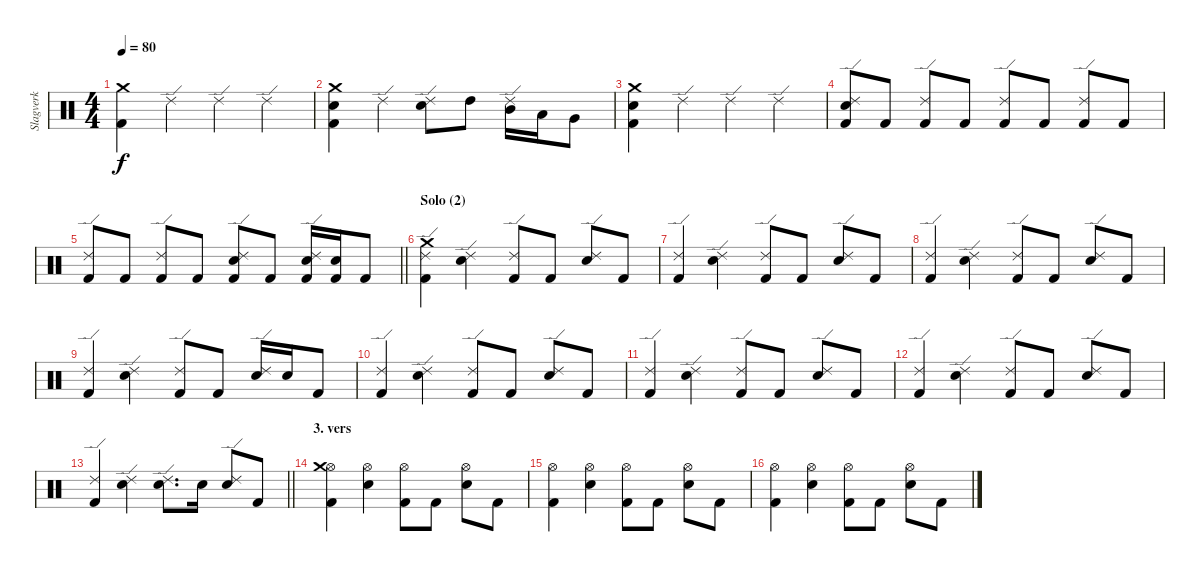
\track ("Slagverk" "Slagverk") {instrument percussion}
\staff {score}
\articulation defaults
\ts (4 4)
\tempo 80
\clef neutral
\ks c
("Crash medium (hit)" "Kick (hit) 2").4{dy f} "Ride (edge) 2".4 "Ride (edge) 2".4 "Ride (edge) 2".4 |
("Electric Snare (hit)" "Crash medium (hit)" "Kick (hit) 2").4 "Ride (edge) 2".4 ("Ride (edge) 2" "Electric Snare (hit)").8 "High Tom (hit)".8 ("Ride (edge) 2" "Mid Tom (hit)").16 "Low Tom (hit)".16 "Very Low Tom (hit)".8 |
("Electric Snare (hit)" "Crash medium (hit)" "Kick (hit) 2").4 "Ride (edge) 2".4 "Ride (edge) 2".4 "Ride (edge) 2".4 |
("Electric Snare (hit)" "Ride (edge) 2" "Kick (hit) 2").8 "Kick (hit) 2".8 ("Ride (edge) 2" "Kick (hit) 2").8 "Kick (hit) 2".8 ("Ride (edge) 2" "Kick (hit) 2").8 "Kick (hit) 2".8 ("Ride (edge) 2" "Kick (hit) 2").8 "Kick (hit) 2".8 |
\barLineRight lightlight
("Ride (edge) 2" "Kick (hit) 2").8 "Kick (hit) 2".8 ("Ride (edge) 2" "Kick (hit) 2").8 "Kick (hit) 2".8 ("Electric Snare (hit)" "Ride (edge) 2" "Kick (hit) 2").8 "Kick (hit) 2".8 ("Electric Snare (hit)" "Ride (edge) 2" "Kick (hit) 2").16 ("Electric Snare (hit)" "Kick (hit) 2").16 "Kick (hit) 2".8 |
\section ("" "Solo (2)")
("Ride (edge) 2" "Kick (hit) 2" "Crash medium (hit)").4 ("Electric Snare (hit)" "Ride (edge) 2").4 ("Ride (edge) 2" "Kick (hit) 2").8 "Kick (hit) 2".8 ("Electric Snare (hit)" "Ride (edge) 2").8 "Kick (hit) 2".8 |
("Ride (edge) 2" "Kick (hit) 2").4 ("Electric Snare (hit)" "Ride (edge) 2").4 ("Ride (edge) 2" "Kick (hit) 2").8 "Kick (hit) 2".8 ("Electric Snare (hit)" "Ride (edge) 2").8 "Kick (hit) 2".8 |
("Ride (edge) 2" "Kick (hit) 2").4 ("Electric Snare (hit)" "Ride (edge) 2").4 ("Ride (edge) 2" "Kick (hit) 2").8 "Kick (hit) 2".8 ("Electric Snare (hit)" "Ride (edge) 2").8 "Kick (hit) 2".8 |
("Ride (edge) 2" "Kick (hit) 2").4 ("Electric Snare (hit)" "Ride (edge) 2").4 ("Ride (edge) 2" "Kick (hit) 2").8 "Kick (hit) 2".8 ("Electric Snare (hit)" "Ride (edge) 2").16 "Electric Snare (hit)".16 "Kick (hit) 2".8 |
("Ride (edge) 2" "Kick (hit) 2").4 ("Electric Snare (hit)" "Ride (edge) 2").4 ("Ride (edge) 2" "Kick (hit) 2").8 "Kick (hit) 2".8 ("Electric Snare (hit)" "Ride (edge) 2").8 "Kick (hit) 2".8 |
("Ride (edge) 2" "Kick (hit) 2").4 ("Electric Snare (hit)" "Ride (edge) 2").4 ("Ride (edge) 2" "Kick (hit) 2").8 "Kick (hit) 2".8 ("Electric Snare (hit)" "Ride (edge) 2").8 "Kick (hit) 2".8 |
("Ride (edge) 2" "Kick (hit) 2").4 ("Electric Snare (hit)" "Ride (edge) 2").4 ("Ride (edge) 2" "Kick (hit) 2").8 "Kick (hit) 2".8 ("Electric Snare (hit)" "Ride (edge) 2").8 "Kick (hit) 2".8 |
\barLineRight lightlight
("Ride (edge) 2" "Kick (hit) 2").4 ("Electric Snare (hit)" "Ride (edge) 2").4 ("Electric Snare (hit)" "Ride (edge) 2").8{d} "Electric Snare (hit)".16 ("Electric Snare (hit)" "Ride (edge) 2").8 "Kick (hit) 2".8 |
\section ("" "3. vers")
("Hi-Hat (open)" "Kick (hit) 2" "Crash medium (hit)").4 ("Electric Snare (hit)" "Hi-Hat (open)").4 ("Hi-Hat (open)" "Kick (hit) 2").8 "Kick (hit) 2".8 ("Electric Snare (hit)" "Hi-Hat (open)").8 "Kick (hit) 2".8 |
("Hi-Hat (open)" "Kick (hit) 2").4 ("Electric Snare (hit)" "Hi-Hat (open)").4 ("Hi-Hat (open)" "Kick (hit) 2").8 "Kick (hit) 2".8 ("Electric Snare (hit)" "Hi-Hat (open)").8 "Kick (hit) 2".8 |
("Hi-Hat (open)" "Kick (hit) 2").4 ("Electric Snare (hit)" "Hi-Hat (open)").4 ("Hi-Hat (open)" "Kick (hit) 2").8 "Kick (hit) 2".8 ("Electric Snare (hit)" "Hi-Hat (open)").8 "Kick (hit) 2".8
